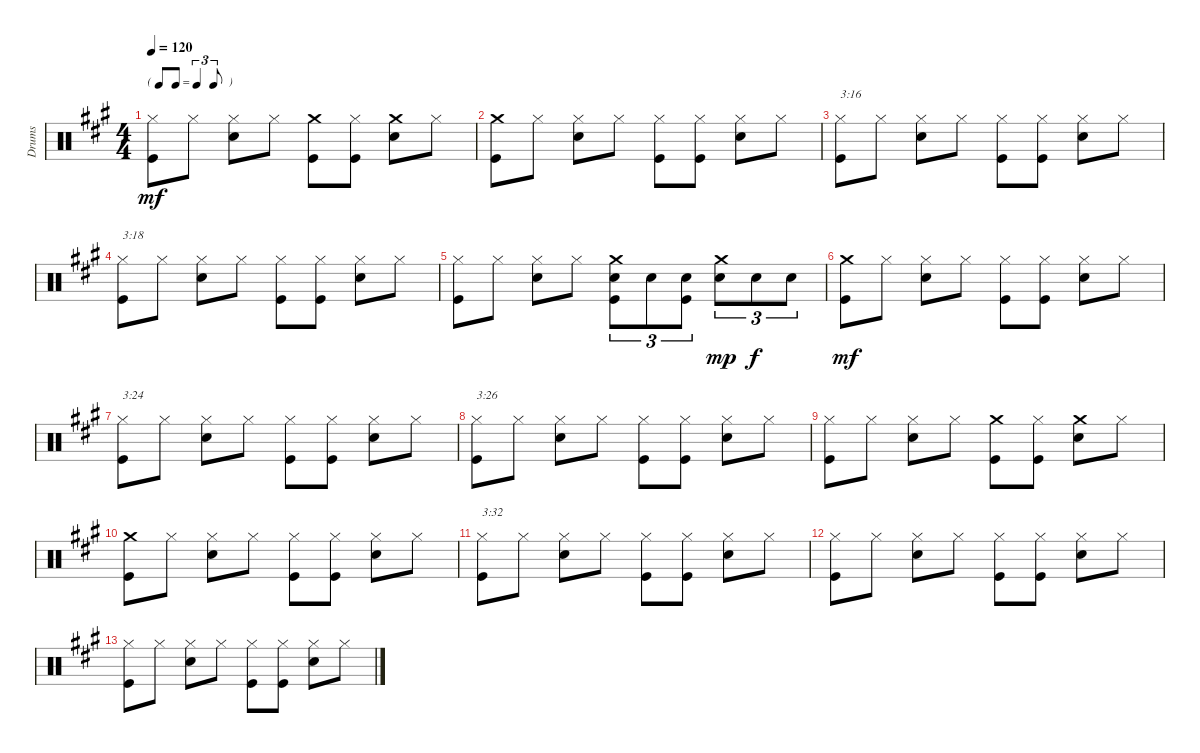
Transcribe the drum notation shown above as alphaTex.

\track ("Drums" "Drums") {instrument percussion}
\staff {score}
\articulation defaults
\ts (4 4)
\tf triplet8th
\tempo 120
\clef neutral
\ks a
("Hi-Hat (closed)" "Kick (hit)").8{dy mf} "Hi-Hat (closed)".8 ("Hi-Hat (closed)" "Snare (hit) 2").8 "Hi-Hat (closed)".8 ("Crash medium (hit)" "Kick (hit)").8 ("Hi-Hat (closed)" "Kick (hit)").8 ("Crash medium (hit)" "Snare (hit) 2").8 "Hi-Hat (closed)".8 |
("Crash medium (hit)" "Kick (hit)").8 "Hi-Hat (closed)".8 ("Hi-Hat (closed)" "Snare (hit) 2").8 "Hi-Hat (closed)".8 ("Hi-Hat (closed)" "Kick (hit)").8 ("Hi-Hat (closed)" "Kick (hit)").8 ("Hi-Hat (closed)" "Snare (hit) 2").8 "Hi-Hat (closed)".8 |
("Hi-Hat (closed)" "Kick (hit)").8{txt "3:16"} "Hi-Hat (closed)".8 ("Hi-Hat (closed)" "Snare (hit) 2").8 "Hi-Hat (closed)".8 ("Hi-Hat (closed)" "Kick (hit)").8 ("Hi-Hat (closed)" "Kick (hit)").8 ("Hi-Hat (closed)" "Snare (hit) 2").8 "Hi-Hat (closed)".8 |
("Hi-Hat (closed)" "Kick (hit)").8{txt "3:18"} "Hi-Hat (closed)".8 ("Hi-Hat (closed)" "Snare (hit) 2").8 "Hi-Hat (closed)".8 ("Hi-Hat (closed)" "Kick (hit)").8 ("Hi-Hat (closed)" "Kick (hit)").8 ("Hi-Hat (closed)" "Snare (hit) 2").8 "Hi-Hat (closed)".8 |
("Hi-Hat (closed)" "Kick (hit)").8 "Hi-Hat (closed)".8 ("Hi-Hat (closed)" "Snare (hit) 2").8 "Hi-Hat (closed)".8 ("Crash medium (hit)" "Snare (hit) 2" "Kick (hit)").8{tu (3 2)} "Snare (hit) 2".8{tu (3 2)} ("Snare (hit) 2" "Kick (hit)").8{tu (3 2)} ("Crash medium (hit)" "Snare (hit) 2").8{tu (3 2) dy mp} "Snare (hit) 2".8{tu (3 2) dy f} "Snare (hit) 2".8{tu (3 2)} |
("Crash medium (hit)" "Kick (hit)").8{dy mf} "Hi-Hat (closed)".8 ("Hi-Hat (closed)" "Snare (hit) 2").8 "Hi-Hat (closed)".8 ("Hi-Hat (closed)" "Kick (hit)").8 ("Hi-Hat (closed)" "Kick (hit)").8 ("Hi-Hat (closed)" "Snare (hit) 2").8 "Hi-Hat (closed)".8 |
("Hi-Hat (closed)" "Kick (hit)").8{txt "3:24"} "Hi-Hat (closed)".8 ("Hi-Hat (closed)" "Snare (hit) 2").8 "Hi-Hat (closed)".8 ("Hi-Hat (closed)" "Kick (hit)").8 ("Hi-Hat (closed)" "Kick (hit)").8 ("Hi-Hat (closed)" "Snare (hit) 2").8 "Hi-Hat (closed)".8 |
("Hi-Hat (closed)" "Kick (hit)").8{txt "3:26"} "Hi-Hat (closed)".8 ("Hi-Hat (closed)" "Snare (hit) 2").8 "Hi-Hat (closed)".8 ("Hi-Hat (closed)" "Kick (hit)").8 ("Hi-Hat (closed)" "Kick (hit)").8 ("Hi-Hat (closed)" "Snare (hit) 2").8 "Hi-Hat (closed)".8 |
("Hi-Hat (closed)" "Kick (hit)").8 "Hi-Hat (closed)".8 ("Hi-Hat (closed)" "Snare (hit) 2").8 "Hi-Hat (closed)".8 ("Crash medium (hit)" "Kick (hit)").8 ("Hi-Hat (closed)" "Kick (hit)").8 ("Crash medium (hit)" "Snare (hit) 2").8 "Hi-Hat (closed)".8 |
("Crash medium (hit)" "Kick (hit)").8 "Hi-Hat (closed)".8 ("Hi-Hat (closed)" "Snare (hit) 2").8 "Hi-Hat (closed)".8 ("Hi-Hat (closed)" "Kick (hit)").8 ("Hi-Hat (closed)" "Kick (hit)").8 ("Hi-Hat (closed)" "Snare (hit) 2").8 "Hi-Hat (closed)".8 |
("Hi-Hat (closed)" "Kick (hit)").8{txt "3:32"} "Hi-Hat (closed)".8 ("Hi-Hat (closed)" "Snare (hit) 2").8 "Hi-Hat (closed)".8 ("Hi-Hat (closed)" "Kick (hit)").8 ("Hi-Hat (closed)" "Kick (hit)").8 ("Hi-Hat (closed)" "Snare (hit) 2").8 "Hi-Hat (closed)".8 |
("Hi-Hat (closed)" "Kick (hit)").8 "Hi-Hat (closed)".8 ("Hi-Hat (closed)" "Snare (hit) 2").8 "Hi-Hat (closed)".8 ("Hi-Hat (closed)" "Kick (hit)").8 ("Hi-Hat (closed)" "Kick (hit)").8 ("Hi-Hat (closed)" "Snare (hit) 2").8 "Hi-Hat (closed)".8 |
("Hi-Hat (closed)" "Kick (hit)").8 "Hi-Hat (closed)".8 ("Hi-Hat (closed)" "Snare (hit) 2").8 "Hi-Hat (closed)".8 ("Hi-Hat (closed)" "Kick (hit)").8 ("Hi-Hat (closed)" "Kick (hit)").8 ("Hi-Hat (closed)" "Snare (hit) 2").8 "Hi-Hat (closed)".8
